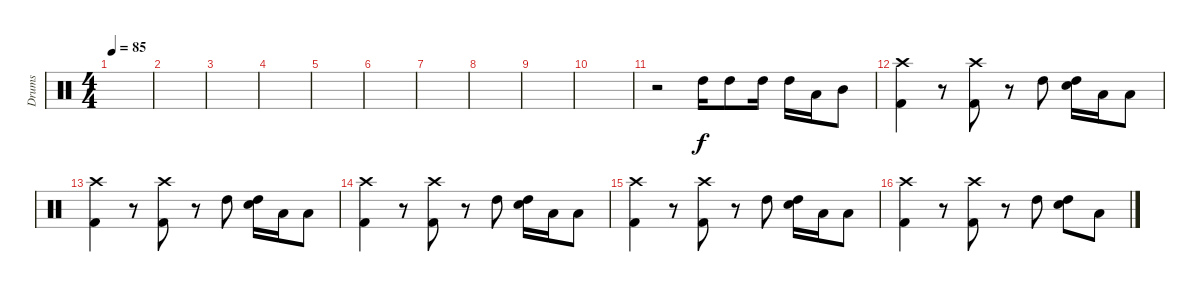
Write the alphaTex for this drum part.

\track ("Drums" "Drums") {instrument percussion}
\staff {score}
\articulation defaults
\ts (4 4)
\tempo 85
\clef neutral
\ks c
|
|
|
|
|
|
|
|
|
|
r.2 "High Tom (hit)".16 "High Tom (hit)".8 "High Tom (hit)".16 "High Tom (hit)".16 "Low Tom (hit)".16 "Mid Tom (hit)".8 |
("Crash high (hit)" "Kick (hit) 2").4 r.8 ("Crash high (hit)" "Kick (hit) 2").8 r.8 "High Tom (hit)".8 ("High Tom (hit)" "Snare (hit) 2").16 "Low Tom (hit)".16 "Low Tom (hit)".8 |
("Crash high (hit)" "Kick (hit) 2").4 r.8 ("Crash high (hit)" "Kick (hit) 2").8 r.8 "High Tom (hit)".8 ("High Tom (hit)" "Snare (hit) 2").16 "Low Tom (hit)".16 "Low Tom (hit)".8 |
("Crash high (hit)" "Kick (hit) 2").4 r.8 ("Crash high (hit)" "Kick (hit) 2").8 r.8 "High Tom (hit)".8 ("High Tom (hit)" "Snare (hit) 2").16 "Low Tom (hit)".16 "Low Tom (hit)".8 |
("Crash high (hit)" "Kick (hit) 2").4 r.8 ("Crash high (hit)" "Kick (hit) 2").8 r.8 "High Tom (hit)".8 ("High Tom (hit)" "Snare (hit) 2").16 "Low Tom (hit)".16 "Low Tom (hit)".8 |
("Crash high (hit)" "Kick (hit) 2").4 r.8 ("Crash high (hit)" "Kick (hit) 2").8 r.8 "High Tom (hit)".8 ("High Tom (hit)" "Snare (hit) 2").8 "Low Tom (hit)".8
